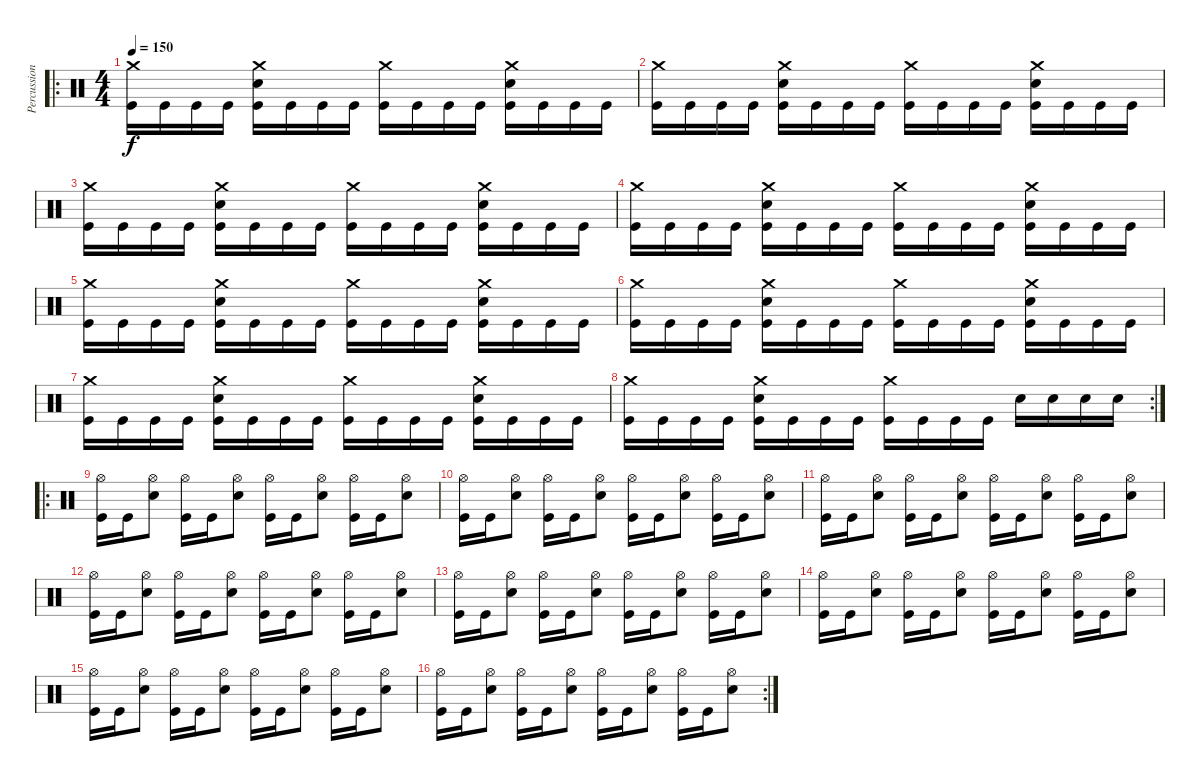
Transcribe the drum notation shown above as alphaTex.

\track ("Percussion" "Percussion") {instrument percussion}
\staff {score}
\articulation defaults
\ro
\ts (4 4)
\tempo 150
\clef neutral
\ks c
("Crash medium (hit)" "Kick (hit)").16{dy f} "Kick (hit)".16 "Kick (hit)".16 "Kick (hit)".16 ("Crash medium (hit)" "Snare (hit) 2" "Kick (hit)").16 "Kick (hit)".16 "Kick (hit)".16 "Kick (hit)".16 ("Crash medium (hit)" "Kick (hit)").16 "Kick (hit)".16 "Kick (hit)".16 "Kick (hit)".16 ("Crash medium (hit)" "Snare (hit) 2" "Kick (hit)").16 "Kick (hit)".16 "Kick (hit)".16 "Kick (hit)".16 |
("Crash medium (hit)" "Kick (hit)").16 "Kick (hit)".16 "Kick (hit)".16 "Kick (hit)".16 ("Crash medium (hit)" "Snare (hit) 2" "Kick (hit)").16 "Kick (hit)".16 "Kick (hit)".16 "Kick (hit)".16 ("Crash medium (hit)" "Kick (hit)").16 "Kick (hit)".16 "Kick (hit)".16 "Kick (hit)".16 ("Crash medium (hit)" "Snare (hit) 2" "Kick (hit)").16 "Kick (hit)".16 "Kick (hit)".16 "Kick (hit)".16 |
("Crash medium (hit)" "Kick (hit)").16 "Kick (hit)".16 "Kick (hit)".16 "Kick (hit)".16 ("Crash medium (hit)" "Snare (hit) 2" "Kick (hit)").16 "Kick (hit)".16 "Kick (hit)".16 "Kick (hit)".16 ("Crash medium (hit)" "Kick (hit)").16 "Kick (hit)".16 "Kick (hit)".16 "Kick (hit)".16 ("Crash medium (hit)" "Snare (hit) 2" "Kick (hit)").16 "Kick (hit)".16 "Kick (hit)".16 "Kick (hit)".16 |
("Crash medium (hit)" "Kick (hit)").16 "Kick (hit)".16 "Kick (hit)".16 "Kick (hit)".16 ("Crash medium (hit)" "Snare (hit) 2" "Kick (hit)").16 "Kick (hit)".16 "Kick (hit)".16 "Kick (hit)".16 ("Crash medium (hit)" "Kick (hit)").16 "Kick (hit)".16 "Kick (hit)".16 "Kick (hit)".16 ("Crash medium (hit)" "Snare (hit) 2" "Kick (hit)").16 "Kick (hit)".16 "Kick (hit)".16 "Kick (hit)".16 |
("Crash medium (hit)" "Kick (hit)").16 "Kick (hit)".16 "Kick (hit)".16 "Kick (hit)".16 ("Crash medium (hit)" "Snare (hit) 2" "Kick (hit)").16 "Kick (hit)".16 "Kick (hit)".16 "Kick (hit)".16 ("Crash medium (hit)" "Kick (hit)").16 "Kick (hit)".16 "Kick (hit)".16 "Kick (hit)".16 ("Crash medium (hit)" "Snare (hit) 2" "Kick (hit)").16 "Kick (hit)".16 "Kick (hit)".16 "Kick (hit)".16 |
("Crash medium (hit)" "Kick (hit)").16 "Kick (hit)".16 "Kick (hit)".16 "Kick (hit)".16 ("Crash medium (hit)" "Snare (hit) 2" "Kick (hit)").16 "Kick (hit)".16 "Kick (hit)".16 "Kick (hit)".16 ("Crash medium (hit)" "Kick (hit)").16 "Kick (hit)".16 "Kick (hit)".16 "Kick (hit)".16 ("Crash medium (hit)" "Snare (hit) 2" "Kick (hit)").16 "Kick (hit)".16 "Kick (hit)".16 "Kick (hit)".16 |
("Crash medium (hit)" "Kick (hit)").16 "Kick (hit)".16 "Kick (hit)".16 "Kick (hit)".16 ("Crash medium (hit)" "Snare (hit) 2" "Kick (hit)").16 "Kick (hit)".16 "Kick (hit)".16 "Kick (hit)".16 ("Crash medium (hit)" "Kick (hit)").16 "Kick (hit)".16 "Kick (hit)".16 "Kick (hit)".16 ("Crash medium (hit)" "Snare (hit) 2" "Kick (hit)").16 "Kick (hit)".16 "Kick (hit)".16 "Kick (hit)".16 |
\rc 2
("Crash medium (hit)" "Kick (hit)").16 "Kick (hit)".16 "Kick (hit)".16 "Kick (hit)".16 ("Crash medium (hit)" "Snare (hit) 2" "Kick (hit)").16 "Kick (hit)".16 "Kick (hit)".16 "Kick (hit)".16 ("Crash medium (hit)" "Kick (hit)").16 "Kick (hit)".16 "Kick (hit)".16 "Kick (hit)".16 "Snare (hit) 2".16 "Snare (hit) 2".16 "Snare (hit) 2".16 "Snare (hit) 2".16 |
\ro
("Hi-Hat (open)" "Kick (hit)").16 "Kick (hit)".16 ("Hi-Hat (open)" "Snare (hit) 2").8 ("Hi-Hat (open)" "Kick (hit)").16 "Kick (hit)".16 ("Hi-Hat (open)" "Snare (hit) 2").8 ("Hi-Hat (open)" "Kick (hit)").16 "Kick (hit)".16 ("Hi-Hat (open)" "Snare (hit) 2").8 ("Hi-Hat (open)" "Kick (hit)").16 "Kick (hit)".16 ("Hi-Hat (open)" "Snare (hit) 2").8 |
("Hi-Hat (open)" "Kick (hit)").16 "Kick (hit)".16 ("Hi-Hat (open)" "Snare (hit) 2").8 ("Hi-Hat (open)" "Kick (hit)").16 "Kick (hit)".16 ("Hi-Hat (open)" "Snare (hit) 2").8 ("Hi-Hat (open)" "Kick (hit)").16 "Kick (hit)".16 ("Hi-Hat (open)" "Snare (hit) 2").8 ("Hi-Hat (open)" "Kick (hit)").16 "Kick (hit)".16 ("Hi-Hat (open)" "Snare (hit) 2").8 |
("Hi-Hat (open)" "Kick (hit)").16 "Kick (hit)".16 ("Hi-Hat (open)" "Snare (hit) 2").8 ("Hi-Hat (open)" "Kick (hit)").16 "Kick (hit)".16 ("Hi-Hat (open)" "Snare (hit) 2").8 ("Hi-Hat (open)" "Kick (hit)").16 "Kick (hit)".16 ("Hi-Hat (open)" "Snare (hit) 2").8 ("Hi-Hat (open)" "Kick (hit)").16 "Kick (hit)".16 ("Hi-Hat (open)" "Snare (hit) 2").8 |
("Hi-Hat (open)" "Kick (hit)").16 "Kick (hit)".16 ("Hi-Hat (open)" "Snare (hit) 2").8 ("Hi-Hat (open)" "Kick (hit)").16 "Kick (hit)".16 ("Hi-Hat (open)" "Snare (hit) 2").8 ("Hi-Hat (open)" "Kick (hit)").16 "Kick (hit)".16 ("Hi-Hat (open)" "Snare (hit) 2").8 ("Hi-Hat (open)" "Kick (hit)").16 "Kick (hit)".16 ("Hi-Hat (open)" "Snare (hit) 2").8 |
("Hi-Hat (open)" "Kick (hit)").16 "Kick (hit)".16 ("Hi-Hat (open)" "Snare (hit) 2").8 ("Hi-Hat (open)" "Kick (hit)").16 "Kick (hit)".16 ("Hi-Hat (open)" "Snare (hit) 2").8 ("Hi-Hat (open)" "Kick (hit)").16 "Kick (hit)".16 ("Hi-Hat (open)" "Snare (hit) 2").8 ("Hi-Hat (open)" "Kick (hit)").16 "Kick (hit)".16 ("Hi-Hat (open)" "Snare (hit) 2").8 |
("Hi-Hat (open)" "Kick (hit)").16 "Kick (hit)".16 ("Hi-Hat (open)" "Snare (hit) 2").8 ("Hi-Hat (open)" "Kick (hit)").16 "Kick (hit)".16 ("Hi-Hat (open)" "Snare (hit) 2").8 ("Hi-Hat (open)" "Kick (hit)").16 "Kick (hit)".16 ("Hi-Hat (open)" "Snare (hit) 2").8 ("Hi-Hat (open)" "Kick (hit)").16 "Kick (hit)".16 ("Hi-Hat (open)" "Snare (hit) 2").8 |
("Hi-Hat (open)" "Kick (hit)").16 "Kick (hit)".16 ("Hi-Hat (open)" "Snare (hit) 2").8 ("Hi-Hat (open)" "Kick (hit)").16 "Kick (hit)".16 ("Hi-Hat (open)" "Snare (hit) 2").8 ("Hi-Hat (open)" "Kick (hit)").16 "Kick (hit)".16 ("Hi-Hat (open)" "Snare (hit) 2").8 ("Hi-Hat (open)" "Kick (hit)").16 "Kick (hit)".16 ("Hi-Hat (open)" "Snare (hit) 2").8 |
\rc 2
("Hi-Hat (open)" "Kick (hit)").16 "Kick (hit)".16 ("Hi-Hat (open)" "Snare (hit) 2").8 ("Hi-Hat (open)" "Kick (hit)").16 "Kick (hit)".16 ("Hi-Hat (open)" "Snare (hit) 2").8 ("Hi-Hat (open)" "Kick (hit)").16 "Kick (hit)".16 ("Hi-Hat (open)" "Snare (hit) 2").8 ("Hi-Hat (open)" "Kick (hit)").16 "Kick (hit)".16 ("Hi-Hat (open)" "Snare (hit) 2").8
